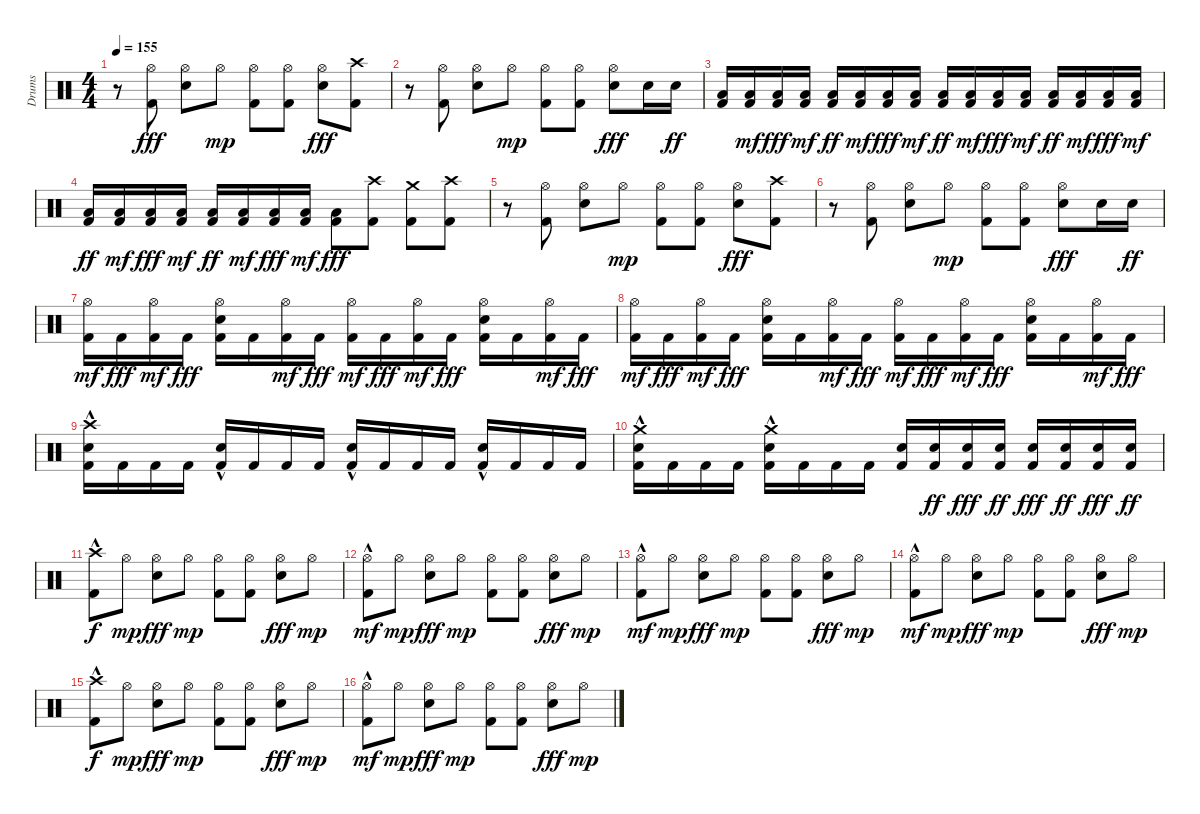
\track ("Drums" "Drums") {instrument percussion}
\staff {score}
\articulation defaults
\ts (4 4)
\tempo 155
\clef neutral
\ks c
r.8{dy fff} ("Hi-Hat (open)" "Kick (hit) 2").8 ("Snare (hit) 2" "Hi-Hat (open)").8 "Hi-Hat (open)".8{dy mp} ("Kick (hit) 2" "Hi-Hat (open)").8 ("Kick (hit) 2" "Hi-Hat (open)").8 ("Snare (hit) 2" "Hi-Hat (open)").8{dy fff} ("Crash high (hit)" "Kick (hit) 2").8 |
r.8 ("Hi-Hat (open)" "Kick (hit) 2").8 ("Snare (hit) 2" "Hi-Hat (open)").8 "Hi-Hat (open)".8{dy mp} ("Kick (hit) 2" "Hi-Hat (open)").8 ("Kick (hit) 2" "Hi-Hat (open)").8 ("Snare (hit) 2" "Hi-Hat (open)").8{dy fff} "Snare (hit) 2".16 "Snare (hit) 2".16{dy ff} |
("Kick (hit) 2" "Low Tom (hit)").16 ("Kick (hit) 2" "Low Tom (hit)").16{dy mf} ("Kick (hit) 2" "Low Tom (hit)").16{dy fff} ("Kick (hit) 2" "Low Tom (hit)").16{dy mf} ("Kick (hit) 2" "Low Tom (hit)").16{dy ff} ("Kick (hit) 2" "Low Tom (hit)").16{dy mf} ("Kick (hit) 2" "Low Tom (hit)").16{dy fff} ("Kick (hit) 2" "Low Tom (hit)").16{dy mf} ("Kick (hit) 2" "Low Tom (hit)").16{dy ff} ("Kick (hit) 2" "Low Tom (hit)").16{dy mf} ("Kick (hit) 2" "Low Tom (hit)").16{dy fff} ("Kick (hit) 2" "Low Tom (hit)").16{dy mf} ("Kick (hit) 2" "Low Tom (hit)").16{dy ff} ("Kick (hit) 2" "Low Tom (hit)").16{dy mf} ("Kick (hit) 2" "Low Tom (hit)").16{dy fff} ("Kick (hit) 2" "Low Tom (hit)").16{dy mf} |
("Kick (hit) 2" "Low Tom (hit)").16{dy ff} ("Kick (hit) 2" "Low Tom (hit)").16{dy mf} ("Kick (hit) 2" "Low Tom (hit)").16{dy fff} ("Kick (hit) 2" "Low Tom (hit)").16{dy mf} ("Kick (hit) 2" "Low Tom (hit)").16{dy ff} ("Kick (hit) 2" "Low Tom (hit)").16{dy mf} ("Kick (hit) 2" "Low Tom (hit)").16{dy fff} ("Kick (hit) 2" "Low Tom (hit)").16{dy mf} ("Low Tom (hit)" "Kick (hit) 2").8{dy fff} ("Kick (hit) 2" "Crash high (hit)").8 ("Kick (hit) 2" "Crash medium (hit)").8 ("Kick (hit) 2" "Crash high (hit)").8 |
r.8 ("Hi-Hat (open)" "Kick (hit) 2").8 ("Snare (hit) 2" "Hi-Hat (open)").8 "Hi-Hat (open)".8{dy mp} ("Kick (hit) 2" "Hi-Hat (open)").8 ("Kick (hit) 2" "Hi-Hat (open)").8 ("Snare (hit) 2" "Hi-Hat (open)").8{dy fff} ("Crash high (hit)" "Kick (hit) 2").8 |
r.8 ("Hi-Hat (open)" "Kick (hit) 2").8 ("Snare (hit) 2" "Hi-Hat (open)").8 "Hi-Hat (open)".8{dy mp} ("Kick (hit) 2" "Hi-Hat (open)").8 ("Kick (hit) 2" "Hi-Hat (open)").8 ("Snare (hit) 2" "Hi-Hat (open)").8{dy fff} "Snare (hit) 2".16 "Snare (hit) 2".16{dy ff} |
("Kick (hit) 2" "Hi-Hat (open)").16{dy mf} "Kick (hit) 2".16{dy fff} ("Kick (hit) 2" "Hi-Hat (open)").16{dy mf} "Kick (hit) 2".16{dy fff} ("Kick (hit) 2" "Snare (hit) 2" "Hi-Hat (open)").16 "Kick (hit) 2".16 ("Kick (hit) 2" "Hi-Hat (open)").16{dy mf} "Kick (hit) 2".16{dy fff} ("Kick (hit) 2" "Hi-Hat (open)").16{dy mf} "Kick (hit) 2".16{dy fff} ("Kick (hit) 2" "Hi-Hat (open)").16{dy mf} "Kick (hit) 2".16{dy fff} ("Kick (hit) 2" "Snare (hit) 2" "Hi-Hat (open)").16 "Kick (hit) 2".16 ("Kick (hit) 2" "Hi-Hat (open)").16{dy mf} "Kick (hit) 2".16{dy fff} |
("Kick (hit) 2" "Hi-Hat (open)").16{dy mf} "Kick (hit) 2".16{dy fff} ("Kick (hit) 2" "Hi-Hat (open)").16{dy mf} "Kick (hit) 2".16{dy fff} ("Kick (hit) 2" "Snare (hit) 2" "Hi-Hat (open)").16 "Kick (hit) 2".16 ("Kick (hit) 2" "Hi-Hat (open)").16{dy mf} "Kick (hit) 2".16{dy fff} ("Kick (hit) 2" "Hi-Hat (open)").16{dy mf} "Kick (hit) 2".16{dy fff} ("Kick (hit) 2" "Hi-Hat (open)").16{dy mf} "Kick (hit) 2".16{dy fff} ("Kick (hit) 2" "Snare (hit) 2" "Hi-Hat (open)").16 "Kick (hit) 2".16 ("Kick (hit) 2" "Hi-Hat (open)").16{dy mf} "Kick (hit) 2".16{dy fff} |
("Kick (hit) 2" "Snare (hit) 2"{hac} "Crash high (hit)"{hac}).16 "Kick (hit) 2".16 "Kick (hit) 2".16 "Kick (hit) 2".16 ("Kick (hit) 2" "Snare (hit) 2"{hac}).16 "Kick (hit) 2".16 "Kick (hit) 2".16 "Kick (hit) 2".16 ("Kick (hit) 2" "Snare (hit) 2"{hac}).16 "Kick (hit) 2".16 "Kick (hit) 2".16 "Kick (hit) 2".16 ("Kick (hit) 2" "Snare (hit) 2"{hac}).16 "Kick (hit) 2".16 "Kick (hit) 2".16 "Kick (hit) 2".16 |
("Kick (hit) 2" "Snare (hit) 2"{hac} "Crash medium (hit)"{hac}).16 "Kick (hit) 2".16 "Kick (hit) 2".16 "Kick (hit) 2".16 ("Kick (hit) 2" "Snare (hit) 2"{hac} "Crash medium (hit)"{hac}).16 "Kick (hit) 2".16 "Kick (hit) 2".16 "Kick (hit) 2".16 ("Kick (hit) 2" "Snare (hit) 2").16 ("Kick (hit) 2" "Snare (hit) 2").16{dy ff} ("Kick (hit) 2" "Snare (hit) 2").16{dy fff} ("Kick (hit) 2" "Snare (hit) 2").16{dy ff} ("Kick (hit) 2" "Snare (hit) 2").16{dy fff} ("Kick (hit) 2" "Snare (hit) 2").16{dy ff} ("Kick (hit) 2" "Snare (hit) 2").16{dy fff} ("Kick (hit) 2" "Snare (hit) 2").16{dy ff} |
("Kick (hit) 2"{hac} "Crash high (hit)").8{dy f} "Hi-Hat (open)".8{dy mp} ("Snare (hit) 2" "Hi-Hat (open)").8{dy fff} "Hi-Hat (open)".8{dy mp} ("Kick (hit) 2" "Hi-Hat (open)").8 ("Kick (hit) 2" "Hi-Hat (open)").8 ("Snare (hit) 2" "Hi-Hat (open)").8{dy fff} "Hi-Hat (open)".8{dy mp} |
("Kick (hit) 2"{hac} "Hi-Hat (open)").8{dy mf} "Hi-Hat (open)".8{dy mp} ("Snare (hit) 2" "Hi-Hat (open)").8{dy fff} "Hi-Hat (open)".8{dy mp} ("Kick (hit) 2" "Hi-Hat (open)").8 ("Kick (hit) 2" "Hi-Hat (open)").8 ("Snare (hit) 2" "Hi-Hat (open)").8{dy fff} "Hi-Hat (open)".8{dy mp} |
("Kick (hit) 2"{hac} "Hi-Hat (open)").8{dy mf} "Hi-Hat (open)".8{dy mp} ("Snare (hit) 2" "Hi-Hat (open)").8{dy fff} "Hi-Hat (open)".8{dy mp} ("Kick (hit) 2" "Hi-Hat (open)").8 ("Kick (hit) 2" "Hi-Hat (open)").8 ("Snare (hit) 2" "Hi-Hat (open)").8{dy fff} "Hi-Hat (open)".8{dy mp} |
("Kick (hit) 2"{hac} "Hi-Hat (open)").8{dy mf} "Hi-Hat (open)".8{dy mp} ("Snare (hit) 2" "Hi-Hat (open)").8{dy fff} "Hi-Hat (open)".8{dy mp} ("Kick (hit) 2" "Hi-Hat (open)").8 ("Kick (hit) 2" "Hi-Hat (open)").8 ("Snare (hit) 2" "Hi-Hat (open)").8{dy fff} "Hi-Hat (open)".8{dy mp} |
("Kick (hit) 2"{hac} "Crash high (hit)").8{dy f} "Hi-Hat (open)".8{dy mp} ("Snare (hit) 2" "Hi-Hat (open)").8{dy fff} "Hi-Hat (open)".8{dy mp} ("Kick (hit) 2" "Hi-Hat (open)").8 ("Kick (hit) 2" "Hi-Hat (open)").8 ("Snare (hit) 2" "Hi-Hat (open)").8{dy fff} "Hi-Hat (open)".8{dy mp} |
("Kick (hit) 2"{hac} "Hi-Hat (open)").8{dy mf} "Hi-Hat (open)".8{dy mp} ("Snare (hit) 2" "Hi-Hat (open)").8{dy fff} "Hi-Hat (open)".8{dy mp} ("Kick (hit) 2" "Hi-Hat (open)").8 ("Kick (hit) 2" "Hi-Hat (open)").8 ("Snare (hit) 2" "Hi-Hat (open)").8{dy fff} "Hi-Hat (open)".8{dy mp}
